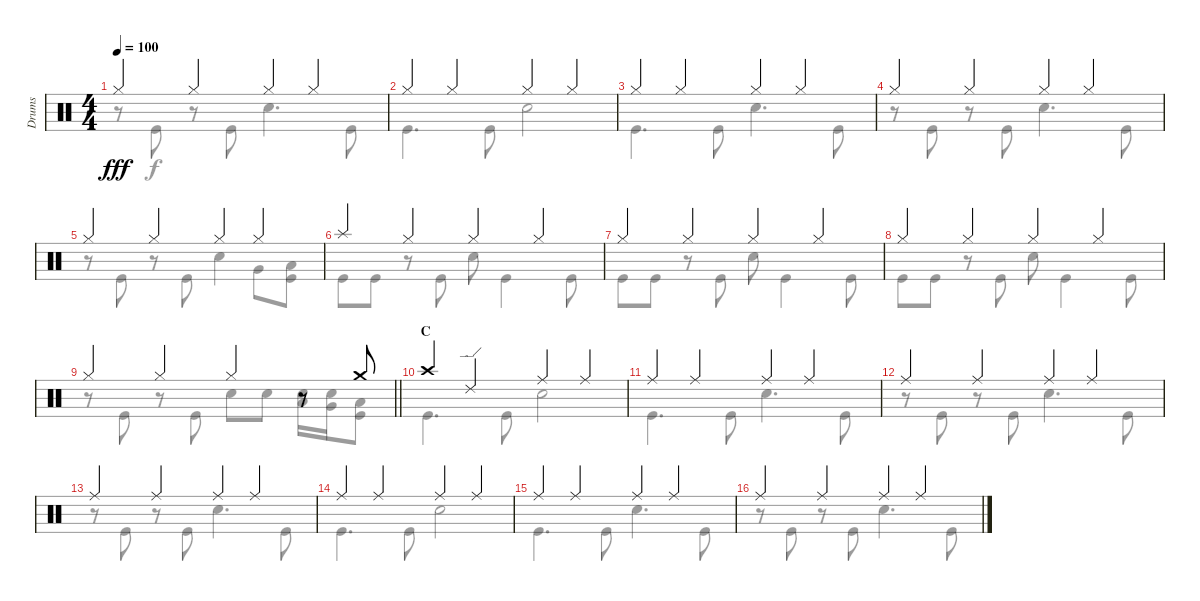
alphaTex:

\track ("Drums" "Drums") {instrument percussion}
\staff {score}
\articulation defaults
\voice
\ts (4 4)
\tempo 100
\clef neutral
\ks c "Hi-Hat (closed)".4{dy fff} "Hi-Hat (closed)".4 "Hi-Hat (closed)".4 "Hi-Hat (closed)".4
|
"Hi-Hat (closed)".4 "Hi-Hat (closed)".4 "Hi-Hat (closed)".4 "Hi-Hat (closed)".4 |
"Hi-Hat (closed)".4 "Hi-Hat (closed)".4 "Hi-Hat (closed)".4 "Hi-Hat (closed)".4 |
"Hi-Hat (closed)".4 "Hi-Hat (closed)".4 "Hi-Hat (closed)".4 "Hi-Hat (closed)".4 |
"Hi-Hat (closed)".4 "Hi-Hat (closed)".4 "Hi-Hat (closed)".4 "Hi-Hat (closed)".4 |
"Splash (hit)".4 "Hi-Hat (closed)".4 "Hi-Hat (closed)".4 "Hi-Hat (closed)".4 |
"Hi-Hat (closed)".4 "Hi-Hat (closed)".4 "Hi-Hat (closed)".4 "Hi-Hat (closed)".4 |
"Hi-Hat (closed)".4 "Hi-Hat (closed)".4 "Hi-Hat (closed)".4 "Hi-Hat (closed)".4 |
\barLineRight lightlight "Hi-Hat (closed)".4 "Hi-Hat (closed)".4 "Hi-Hat (closed)".4
r.8 "Crash medium (hit)".8 |
\section ("" "C")
"Crash high (hit)".4 "Ride (edge) 2".4 "Ride (middle)".4 "Ride (middle)".4 |
"Ride (middle)".4 "Ride (middle)".4 "Ride (middle)".4 "Ride (middle)".4 |
"Ride (middle)".4 "Ride (middle)".4 "Ride (middle)".4 "Ride (middle)".4 |
"Ride (middle)".4 "Ride (middle)".4 "Ride (middle)".4 "Ride (middle)".4 |
"Ride (middle)".4 "Ride (middle)".4 "Ride (middle)".4 "Ride (middle)".4 |
"Ride (middle)".4 "Ride (middle)".4 "Ride (middle)".4 "Ride (middle)".4 |
"Ride (middle)".4 "Ride (middle)".4 "Ride (middle)".4 "Ride (middle)".4
\voice
\clef neutral
\ottava regular
\simile none
\ks c
r.8{dy f} "Kick (hit)".8 r.8 "Kick (hit)".8 "Snare (hit) 2".4{d} "Kick (hit)".8 |
"Kick (hit)".4{d} "Kick (hit)".8 "Snare (hit) 2".2 |
"Kick (hit)".4{d} "Kick (hit)".8 "Snare (hit) 2".4{d} "Kick (hit)".8 |
r.8 "Kick (hit)".8 r.8 "Kick (hit)".8 "Snare (hit) 2".4{d} "Kick (hit)".8 |
r.8 "Kick (hit)".8 r.8 "Kick (hit)".8 "Snare (hit) 2".4 "Very Low Tom (hit)".8 ("Low Floor Tom (hit)" "Kick (hit)").8 |
"Kick (hit)".8 "Kick (hit)".8 r.8 "Kick (hit)".8 "Snare (hit) 2".8 "Kick (hit)".4 "Kick (hit)".8 |
"Kick (hit)".8 "Kick (hit)".8 r.8 "Kick (hit)".8 "Snare (hit) 2".8 "Kick (hit)".4 "Kick (hit)".8 |
"Kick (hit)".8 "Kick (hit)".8 r.8 "Kick (hit)".8 "Snare (hit) 2".8 "Kick (hit)".4 "Kick (hit)".8 |
\barLineRight lightlight
r.8 "Kick (hit)".8 r.8 "Kick (hit)".8 "Snare (hit) 2".8 "Snare (hit) 2".8 ("Snare (hit) 2" "Low Tom (hit)").16 ("Snare (hit) 2" "Very Low Tom (hit)").16 ("Low Floor Tom (hit)" "Kick (hit)").8 |
"Kick (hit)".4{d} "Kick (hit)".8 "Snare (hit) 2".2 |
"Kick (hit)".4{d} "Kick (hit)".8 "Snare (hit) 2".4{d} "Kick (hit)".8 |
r.8 "Kick (hit)".8 r.8 "Kick (hit)".8 "Snare (hit) 2".4{d} "Kick (hit)".8 |
r.8 "Kick (hit)".8 r.8 "Kick (hit)".8 "Snare (hit) 2".4{d} "Kick (hit)".8 |
"Kick (hit)".4{d} "Kick (hit)".8 "Snare (hit) 2".2 |
"Kick (hit)".4{d} "Kick (hit)".8 "Snare (hit) 2".4{d} "Kick (hit)".8 |
r.8 "Kick (hit)".8 r.8 "Kick (hit)".8 "Snare (hit) 2".4{d} "Kick (hit)".8
